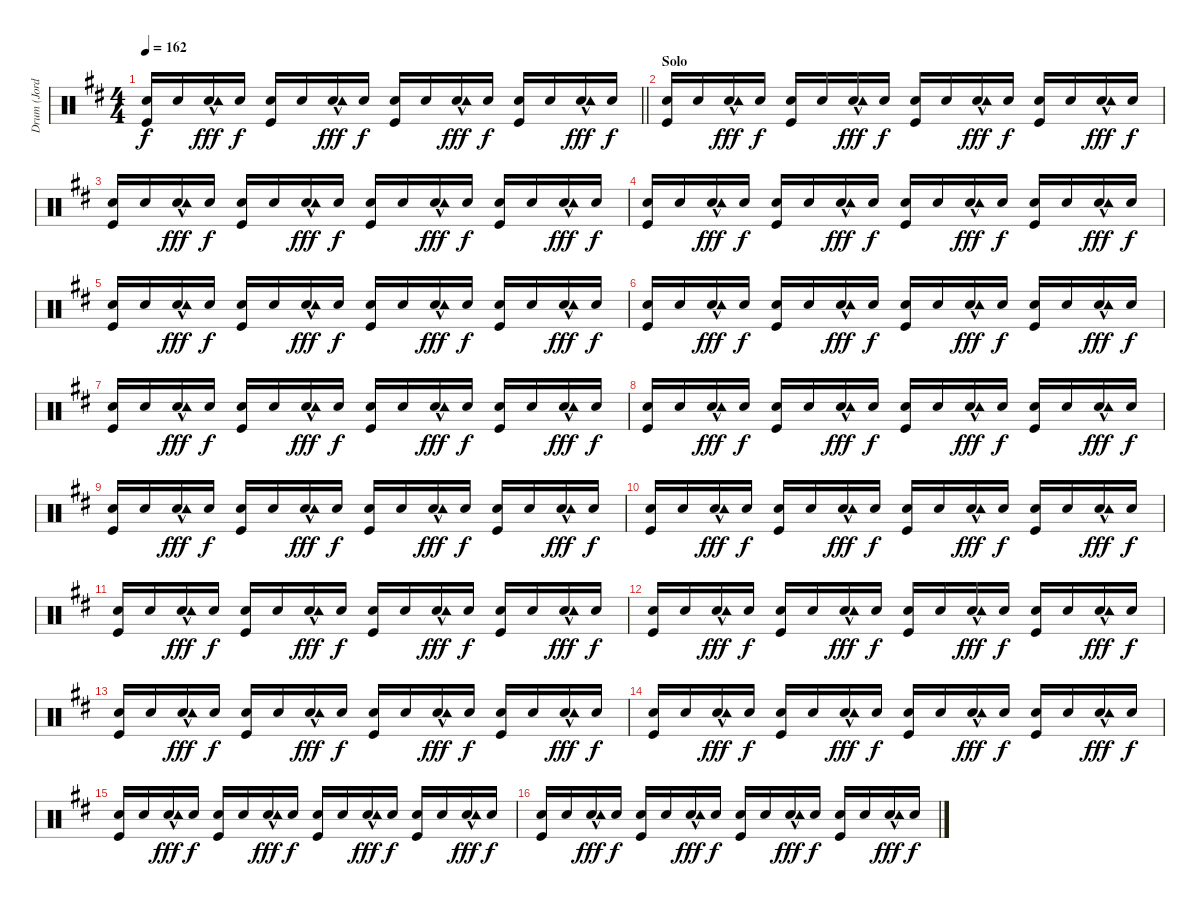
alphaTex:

\track ("Drum (Jordan)" "Drum (Jord") {instrument percussion}
\staff {score}
\articulation defaults
\ts (4 4)
\tempo 162
\clef neutral
\barLineRight lightlight
\ks d
("Snare (hit) 2" "Kick (hit)").16{dy f} "Snare (hit) 2".16 ("Snare (hit) 2"{hac} "Tambourine (hit)").16{dy fff} "Snare (hit) 2".16{dy f} ("Snare (hit) 2" "Kick (hit)").16 "Snare (hit) 2".16 ("Snare (hit) 2"{hac} "Tambourine (hit)").16{dy fff} "Snare (hit) 2".16{dy f} ("Snare (hit) 2" "Kick (hit)").16 "Snare (hit) 2".16 ("Snare (hit) 2"{hac} "Tambourine (hit)").16{dy fff} "Snare (hit) 2".16{dy f} ("Snare (hit) 2" "Kick (hit)").16 "Snare (hit) 2".16 ("Snare (hit) 2"{hac} "Tambourine (hit)").16{dy fff} "Snare (hit) 2".16{dy f} |
\section ("" "Solo")
("Snare (hit) 2" "Kick (hit)").16 "Snare (hit) 2".16 ("Snare (hit) 2"{hac} "Tambourine (hit)").16{dy fff} "Snare (hit) 2".16{dy f} ("Snare (hit) 2" "Kick (hit)").16 "Snare (hit) 2".16 ("Snare (hit) 2"{hac} "Tambourine (hit)").16{dy fff} "Snare (hit) 2".16{dy f} ("Snare (hit) 2" "Kick (hit)").16 "Snare (hit) 2".16 ("Snare (hit) 2"{hac} "Tambourine (hit)").16{dy fff} "Snare (hit) 2".16{dy f} ("Snare (hit) 2" "Kick (hit)").16 "Snare (hit) 2".16 ("Snare (hit) 2"{hac} "Tambourine (hit)").16{dy fff} "Snare (hit) 2".16{dy f} |
("Snare (hit) 2" "Kick (hit)").16 "Snare (hit) 2".16 ("Snare (hit) 2"{hac} "Tambourine (hit)").16{dy fff} "Snare (hit) 2".16{dy f} ("Snare (hit) 2" "Kick (hit)").16 "Snare (hit) 2".16 ("Snare (hit) 2"{hac} "Tambourine (hit)").16{dy fff} "Snare (hit) 2".16{dy f} ("Snare (hit) 2" "Kick (hit)").16 "Snare (hit) 2".16 ("Snare (hit) 2"{hac} "Tambourine (hit)").16{dy fff} "Snare (hit) 2".16{dy f} ("Snare (hit) 2" "Kick (hit)").16 "Snare (hit) 2".16 ("Snare (hit) 2"{hac} "Tambourine (hit)").16{dy fff} "Snare (hit) 2".16{dy f} |
("Snare (hit) 2" "Kick (hit)").16 "Snare (hit) 2".16 ("Snare (hit) 2"{hac} "Tambourine (hit)").16{dy fff} "Snare (hit) 2".16{dy f} ("Snare (hit) 2" "Kick (hit)").16 "Snare (hit) 2".16 ("Snare (hit) 2"{hac} "Tambourine (hit)").16{dy fff} "Snare (hit) 2".16{dy f} ("Snare (hit) 2" "Kick (hit)").16 "Snare (hit) 2".16 ("Snare (hit) 2"{hac} "Tambourine (hit)").16{dy fff} "Snare (hit) 2".16{dy f} ("Snare (hit) 2" "Kick (hit)").16 "Snare (hit) 2".16 ("Snare (hit) 2"{hac} "Tambourine (hit)").16{dy fff} "Snare (hit) 2".16{dy f} |
("Snare (hit) 2" "Kick (hit)").16 "Snare (hit) 2".16 ("Snare (hit) 2"{hac} "Tambourine (hit)").16{dy fff} "Snare (hit) 2".16{dy f} ("Snare (hit) 2" "Kick (hit)").16 "Snare (hit) 2".16 ("Snare (hit) 2"{hac} "Tambourine (hit)").16{dy fff} "Snare (hit) 2".16{dy f} ("Snare (hit) 2" "Kick (hit)").16 "Snare (hit) 2".16 ("Snare (hit) 2"{hac} "Tambourine (hit)").16{dy fff} "Snare (hit) 2".16{dy f} ("Snare (hit) 2" "Kick (hit)").16 "Snare (hit) 2".16 ("Snare (hit) 2"{hac} "Tambourine (hit)").16{dy fff} "Snare (hit) 2".16{dy f} |
("Snare (hit) 2" "Kick (hit)").16 "Snare (hit) 2".16 ("Snare (hit) 2"{hac} "Tambourine (hit)").16{dy fff} "Snare (hit) 2".16{dy f} ("Snare (hit) 2" "Kick (hit)").16 "Snare (hit) 2".16 ("Snare (hit) 2"{hac} "Tambourine (hit)").16{dy fff} "Snare (hit) 2".16{dy f} ("Snare (hit) 2" "Kick (hit)").16 "Snare (hit) 2".16 ("Snare (hit) 2"{hac} "Tambourine (hit)").16{dy fff} "Snare (hit) 2".16{dy f} ("Snare (hit) 2" "Kick (hit)").16 "Snare (hit) 2".16 ("Snare (hit) 2"{hac} "Tambourine (hit)").16{dy fff} "Snare (hit) 2".16{dy f} |
("Snare (hit) 2" "Kick (hit)").16 "Snare (hit) 2".16 ("Snare (hit) 2"{hac} "Tambourine (hit)").16{dy fff} "Snare (hit) 2".16{dy f} ("Snare (hit) 2" "Kick (hit)").16 "Snare (hit) 2".16 ("Snare (hit) 2"{hac} "Tambourine (hit)").16{dy fff} "Snare (hit) 2".16{dy f} ("Snare (hit) 2" "Kick (hit)").16 "Snare (hit) 2".16 ("Snare (hit) 2"{hac} "Tambourine (hit)").16{dy fff} "Snare (hit) 2".16{dy f} ("Snare (hit) 2" "Kick (hit)").16 "Snare (hit) 2".16 ("Snare (hit) 2"{hac} "Tambourine (hit)").16{dy fff} "Snare (hit) 2".16{dy f} |
("Snare (hit) 2" "Kick (hit)").16 "Snare (hit) 2".16 ("Snare (hit) 2"{hac} "Tambourine (hit)").16{dy fff} "Snare (hit) 2".16{dy f} ("Snare (hit) 2" "Kick (hit)").16 "Snare (hit) 2".16 ("Snare (hit) 2"{hac} "Tambourine (hit)").16{dy fff} "Snare (hit) 2".16{dy f} ("Snare (hit) 2" "Kick (hit)").16 "Snare (hit) 2".16 ("Snare (hit) 2"{hac} "Tambourine (hit)").16{dy fff} "Snare (hit) 2".16{dy f} ("Snare (hit) 2" "Kick (hit)").16 "Snare (hit) 2".16 ("Snare (hit) 2"{hac} "Tambourine (hit)").16{dy fff} "Snare (hit) 2".16{dy f} |
("Snare (hit) 2" "Kick (hit)").16 "Snare (hit) 2".16 ("Snare (hit) 2"{hac} "Tambourine (hit)").16{dy fff} "Snare (hit) 2".16{dy f} ("Snare (hit) 2" "Kick (hit)").16 "Snare (hit) 2".16 ("Snare (hit) 2"{hac} "Tambourine (hit)").16{dy fff} "Snare (hit) 2".16{dy f} ("Snare (hit) 2" "Kick (hit)").16 "Snare (hit) 2".16 ("Snare (hit) 2"{hac} "Tambourine (hit)").16{dy fff} "Snare (hit) 2".16{dy f} ("Snare (hit) 2" "Kick (hit)").16 "Snare (hit) 2".16 ("Snare (hit) 2"{hac} "Tambourine (hit)").16{dy fff} "Snare (hit) 2".16{dy f} |
("Snare (hit) 2" "Kick (hit)").16 "Snare (hit) 2".16 ("Snare (hit) 2"{hac} "Tambourine (hit)").16{dy fff} "Snare (hit) 2".16{dy f} ("Snare (hit) 2" "Kick (hit)").16 "Snare (hit) 2".16 ("Snare (hit) 2"{hac} "Tambourine (hit)").16{dy fff} "Snare (hit) 2".16{dy f} ("Snare (hit) 2" "Kick (hit)").16 "Snare (hit) 2".16 ("Snare (hit) 2"{hac} "Tambourine (hit)").16{dy fff} "Snare (hit) 2".16{dy f} ("Snare (hit) 2" "Kick (hit)").16 "Snare (hit) 2".16 ("Snare (hit) 2"{hac} "Tambourine (hit)").16{dy fff} "Snare (hit) 2".16{dy f} |
("Snare (hit) 2" "Kick (hit)").16 "Snare (hit) 2".16 ("Snare (hit) 2"{hac} "Tambourine (hit)").16{dy fff} "Snare (hit) 2".16{dy f} ("Snare (hit) 2" "Kick (hit)").16 "Snare (hit) 2".16 ("Snare (hit) 2"{hac} "Tambourine (hit)").16{dy fff} "Snare (hit) 2".16{dy f} ("Snare (hit) 2" "Kick (hit)").16 "Snare (hit) 2".16 ("Snare (hit) 2"{hac} "Tambourine (hit)").16{dy fff} "Snare (hit) 2".16{dy f} ("Snare (hit) 2" "Kick (hit)").16 "Snare (hit) 2".16 ("Snare (hit) 2"{hac} "Tambourine (hit)").16{dy fff} "Snare (hit) 2".16{dy f} |
("Snare (hit) 2" "Kick (hit)").16 "Snare (hit) 2".16 ("Snare (hit) 2"{hac} "Tambourine (hit)").16{dy fff} "Snare (hit) 2".16{dy f} ("Snare (hit) 2" "Kick (hit)").16 "Snare (hit) 2".16 ("Snare (hit) 2"{hac} "Tambourine (hit)").16{dy fff} "Snare (hit) 2".16{dy f} ("Snare (hit) 2" "Kick (hit)").16 "Snare (hit) 2".16 ("Snare (hit) 2"{hac} "Tambourine (hit)").16{dy fff} "Snare (hit) 2".16{dy f} ("Snare (hit) 2" "Kick (hit)").16 "Snare (hit) 2".16 ("Snare (hit) 2"{hac} "Tambourine (hit)").16{dy fff} "Snare (hit) 2".16{dy f} |
("Snare (hit) 2" "Kick (hit)").16 "Snare (hit) 2".16 ("Snare (hit) 2"{hac} "Tambourine (hit)").16{dy fff} "Snare (hit) 2".16{dy f} ("Snare (hit) 2" "Kick (hit)").16 "Snare (hit) 2".16 ("Snare (hit) 2"{hac} "Tambourine (hit)").16{dy fff} "Snare (hit) 2".16{dy f} ("Snare (hit) 2" "Kick (hit)").16 "Snare (hit) 2".16 ("Snare (hit) 2"{hac} "Tambourine (hit)").16{dy fff} "Snare (hit) 2".16{dy f} ("Snare (hit) 2" "Kick (hit)").16 "Snare (hit) 2".16 ("Snare (hit) 2"{hac} "Tambourine (hit)").16{dy fff} "Snare (hit) 2".16{dy f} |
("Snare (hit) 2" "Kick (hit)").16 "Snare (hit) 2".16 ("Snare (hit) 2"{hac} "Tambourine (hit)").16{dy fff} "Snare (hit) 2".16{dy f} ("Snare (hit) 2" "Kick (hit)").16 "Snare (hit) 2".16 ("Snare (hit) 2"{hac} "Tambourine (hit)").16{dy fff} "Snare (hit) 2".16{dy f} ("Snare (hit) 2" "Kick (hit)").16 "Snare (hit) 2".16 ("Snare (hit) 2"{hac} "Tambourine (hit)").16{dy fff} "Snare (hit) 2".16{dy f} ("Snare (hit) 2" "Kick (hit)").16 "Snare (hit) 2".16 ("Snare (hit) 2"{hac} "Tambourine (hit)").16{dy fff} "Snare (hit) 2".16{dy f} |
("Snare (hit) 2" "Kick (hit)").16 "Snare (hit) 2".16 ("Snare (hit) 2"{hac} "Tambourine (hit)").16{dy fff} "Snare (hit) 2".16{dy f} ("Snare (hit) 2" "Kick (hit)").16 "Snare (hit) 2".16 ("Snare (hit) 2"{hac} "Tambourine (hit)").16{dy fff} "Snare (hit) 2".16{dy f} ("Snare (hit) 2" "Kick (hit)").16 "Snare (hit) 2".16 ("Snare (hit) 2"{hac} "Tambourine (hit)").16{dy fff} "Snare (hit) 2".16{dy f} ("Snare (hit) 2" "Kick (hit)").16 "Snare (hit) 2".16 ("Snare (hit) 2"{hac} "Tambourine (hit)").16{dy fff} "Snare (hit) 2".16{dy f} |
("Snare (hit) 2" "Kick (hit)").16 "Snare (hit) 2".16 ("Snare (hit) 2"{hac} "Tambourine (hit)").16{dy fff} "Snare (hit) 2".16{dy f} ("Snare (hit) 2" "Kick (hit)").16 "Snare (hit) 2".16 ("Snare (hit) 2"{hac} "Tambourine (hit)").16{dy fff} "Snare (hit) 2".16{dy f} ("Snare (hit) 2" "Kick (hit)").16 "Snare (hit) 2".16 ("Snare (hit) 2"{hac} "Tambourine (hit)").16{dy fff} "Snare (hit) 2".16{dy f} ("Snare (hit) 2" "Kick (hit)").16 "Snare (hit) 2".16 ("Snare (hit) 2"{hac} "Tambourine (hit)").16{dy fff} "Snare (hit) 2".16{dy f}
